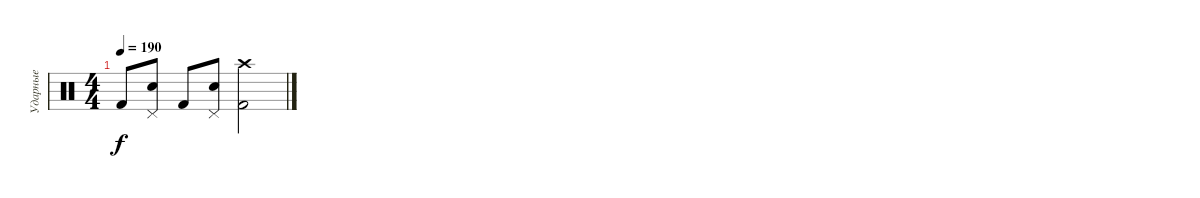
\track ("Ударные" "Ударные") {instrument percussion}
\staff {score}
\articulation defaults
\ts (4 4)
\tempo 190
\clef neutral
\ks c "Kick (hit) 2".8{dy f}
("Pedal Hi-Hat (hit)" "Electric Snare (hit)").8 "Kick (hit) 2".8 ("Pedal Hi-Hat (hit)" "Electric Snare (hit)").8 ("Crash high (hit)" "Kick (hit) 2").2
